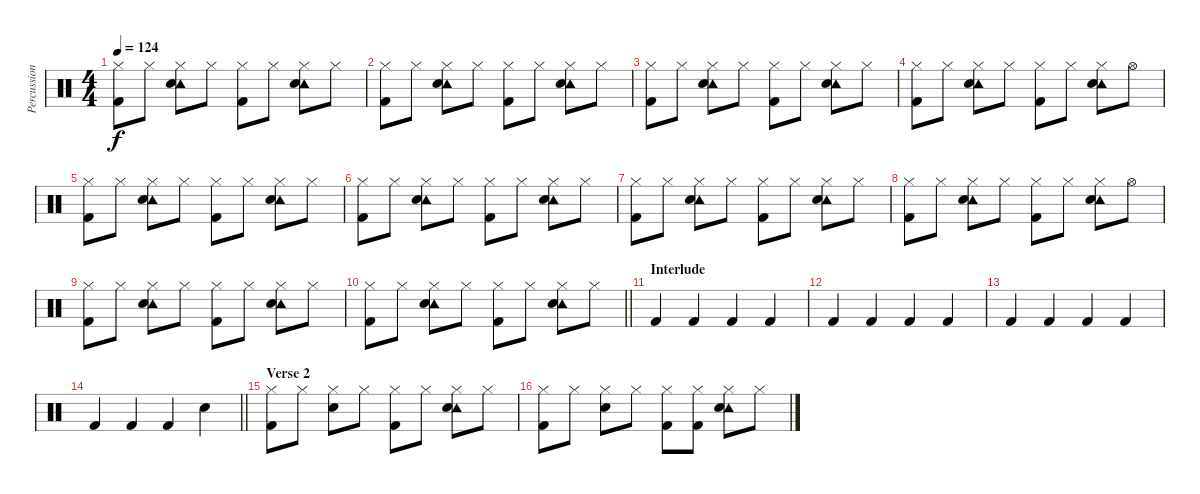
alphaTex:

\track ("Percussion" "Percussion") {instrument percussion}
\staff {score}
\articulation defaults
\ts (4 4)
\tempo 124
\clef neutral
\ks c
("Hi-Hat (closed)" "Kick (hit) 2").8{dy f} "Hi-Hat (closed)".8 ("Hi-Hat (closed)" "Tambourine (hit)" "Snare (hit) 2").8 "Hi-Hat (closed)".8 ("Hi-Hat (closed)" "Kick (hit) 2").8 "Hi-Hat (closed)".8 ("Hi-Hat (closed)" "Tambourine (hit)" "Snare (hit) 2").8 "Hi-Hat (closed)".8 |
("Hi-Hat (closed)" "Kick (hit) 2").8 "Hi-Hat (closed)".8 ("Hi-Hat (closed)" "Tambourine (hit)" "Snare (hit) 2").8 "Hi-Hat (closed)".8 ("Hi-Hat (closed)" "Kick (hit) 2").8 "Hi-Hat (closed)".8 ("Hi-Hat (closed)" "Tambourine (hit)" "Snare (hit) 2").8 "Hi-Hat (closed)".8 |
("Hi-Hat (closed)" "Kick (hit) 2").8 "Hi-Hat (closed)".8 ("Hi-Hat (closed)" "Tambourine (hit)" "Snare (hit) 2").8 "Hi-Hat (closed)".8 ("Hi-Hat (closed)" "Kick (hit) 2").8 "Hi-Hat (closed)".8 ("Hi-Hat (closed)" "Tambourine (hit)" "Snare (hit) 2").8 "Hi-Hat (closed)".8 |
("Hi-Hat (closed)" "Kick (hit) 2").8 "Hi-Hat (closed)".8 ("Hi-Hat (closed)" "Tambourine (hit)" "Snare (hit) 2").8 "Hi-Hat (closed)".8 ("Hi-Hat (closed)" "Kick (hit) 2").8 "Hi-Hat (closed)".8 ("Hi-Hat (closed)" "Tambourine (hit)" "Snare (hit) 2").8 "Hi-Hat (open)".8 |
("Hi-Hat (closed)" "Kick (hit) 2").8 "Hi-Hat (closed)".8 ("Hi-Hat (closed)" "Tambourine (hit)" "Snare (hit) 2").8 "Hi-Hat (closed)".8 ("Hi-Hat (closed)" "Kick (hit) 2").8 "Hi-Hat (closed)".8 ("Hi-Hat (closed)" "Tambourine (hit)" "Snare (hit) 2").8 "Hi-Hat (closed)".8 |
("Hi-Hat (closed)" "Kick (hit) 2").8 "Hi-Hat (closed)".8 ("Hi-Hat (closed)" "Tambourine (hit)" "Snare (hit) 2").8 "Hi-Hat (closed)".8 ("Hi-Hat (closed)" "Kick (hit) 2").8 "Hi-Hat (closed)".8 ("Hi-Hat (closed)" "Tambourine (hit)" "Snare (hit) 2").8 "Hi-Hat (closed)".8 |
("Hi-Hat (closed)" "Kick (hit) 2").8 "Hi-Hat (closed)".8 ("Hi-Hat (closed)" "Tambourine (hit)" "Snare (hit) 2").8 "Hi-Hat (closed)".8 ("Hi-Hat (closed)" "Kick (hit) 2").8 "Hi-Hat (closed)".8 ("Hi-Hat (closed)" "Tambourine (hit)" "Snare (hit) 2").8 "Hi-Hat (closed)".8 |
("Hi-Hat (closed)" "Kick (hit) 2").8 "Hi-Hat (closed)".8 ("Hi-Hat (closed)" "Tambourine (hit)" "Snare (hit) 2").8 "Hi-Hat (closed)".8 ("Hi-Hat (closed)" "Kick (hit) 2").8 "Hi-Hat (closed)".8 ("Hi-Hat (closed)" "Tambourine (hit)" "Snare (hit) 2").8 "Hi-Hat (open)".8 |
("Hi-Hat (closed)" "Kick (hit) 2").8 "Hi-Hat (closed)".8 ("Hi-Hat (closed)" "Tambourine (hit)" "Snare (hit) 2").8 "Hi-Hat (closed)".8 ("Hi-Hat (closed)" "Kick (hit) 2").8 "Hi-Hat (closed)".8 ("Hi-Hat (closed)" "Tambourine (hit)" "Snare (hit) 2").8 "Hi-Hat (closed)".8 |
\barLineRight lightlight
("Hi-Hat (closed)" "Kick (hit) 2").8 "Hi-Hat (closed)".8 ("Hi-Hat (closed)" "Tambourine (hit)" "Snare (hit) 2").8 "Hi-Hat (closed)".8 ("Hi-Hat (closed)" "Kick (hit) 2").8 "Hi-Hat (closed)".8 ("Hi-Hat (closed)" "Tambourine (hit)" "Snare (hit) 2").8 "Hi-Hat (closed)".8 |
\section ("" "Interlude")
"Kick (hit) 2".4 "Kick (hit) 2".4 "Kick (hit) 2".4 "Kick (hit) 2".4 |
"Kick (hit) 2".4 "Kick (hit) 2".4 "Kick (hit) 2".4 "Kick (hit) 2".4 |
"Kick (hit) 2".4 "Kick (hit) 2".4 "Kick (hit) 2".4 "Kick (hit) 2".4 |
\barLineRight lightlight "Kick (hit) 2".4 "Kick (hit) 2".4 "Kick (hit) 2".4 "Snare (hit) 2".4
|
\section ("" "Verse 2")
("Hi-Hat (closed)" "Kick (hit) 2").8 "Hi-Hat (closed)".8 ("Hi-Hat (closed)" "Snare (hit) 2").8 "Hi-Hat (closed)".8 ("Hi-Hat (closed)" "Kick (hit) 2").8 "Hi-Hat (closed)".8 ("Hi-Hat (closed)" "Tambourine (hit)" "Snare (hit) 2").8 "Hi-Hat (closed)".8 |
("Hi-Hat (closed)" "Kick (hit) 2").8 "Hi-Hat (closed)".8 ("Hi-Hat (closed)" "Snare (hit) 2").8 "Hi-Hat (closed)".8 ("Hi-Hat (closed)" "Kick (hit) 2").8 ("Hi-Hat (closed)" "Kick (hit) 2").8 ("Hi-Hat (closed)" "Tambourine (hit)" "Snare (hit) 2").8 "Hi-Hat (closed)".8
